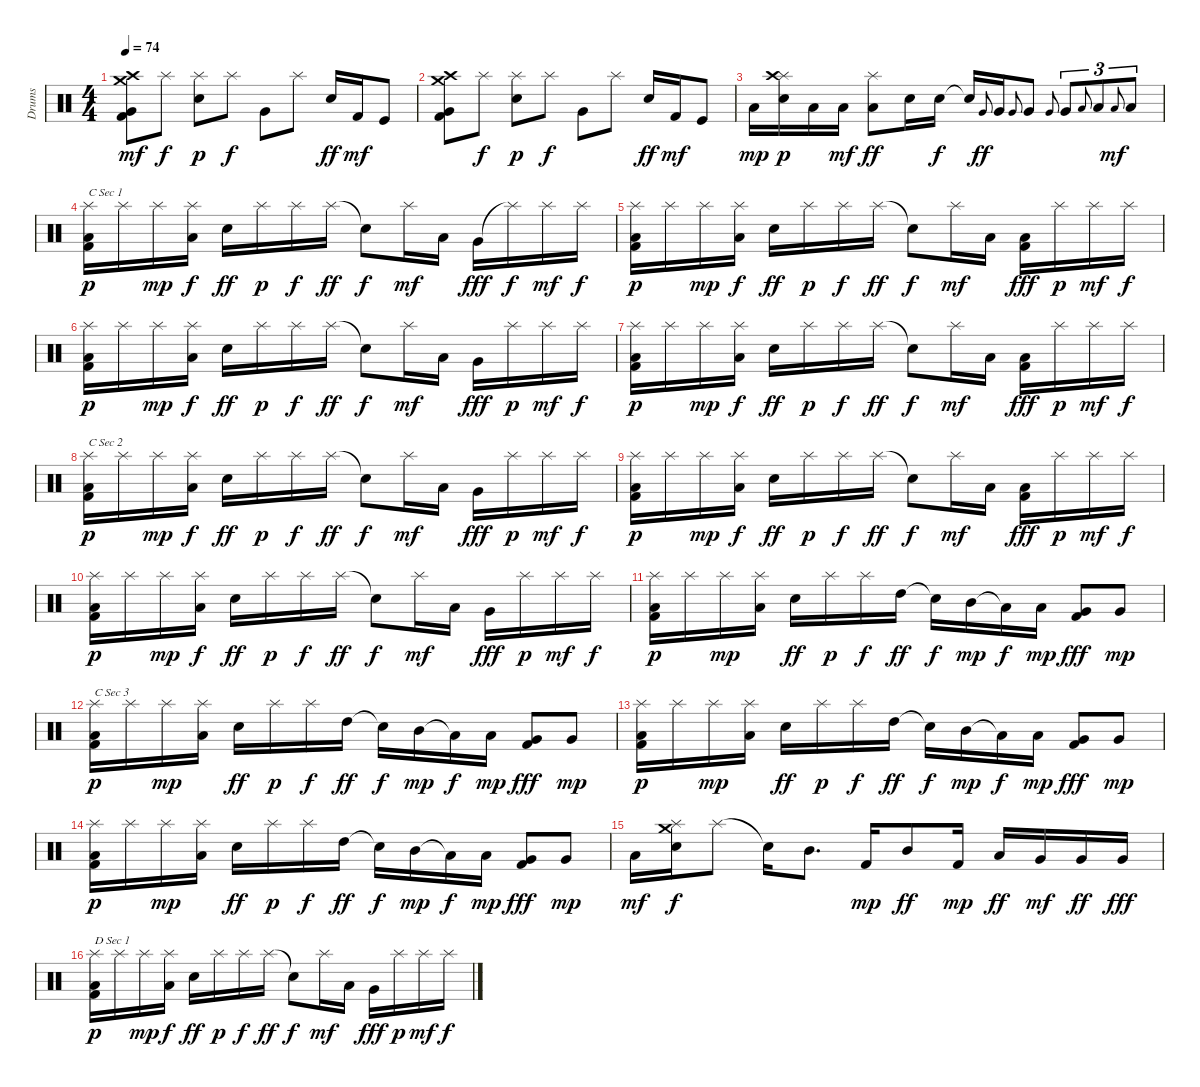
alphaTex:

\track ("Drums" "Drums") {instrument percussion}
\staff {score}
\articulation defaults
\ts (4 4)
\tempo 74
\clef neutral
\ks c
("Very Low Tom (hit)" "Crash medium (hit)" "Kick (hit) 2" "Crash high (hit)").8{dy mf} "Splash (hit)".8{dy f} ("Electric Snare (hit)" "Splash (hit)").8{dy p} "Splash (hit)".8{dy f} "Very Low Tom (hit)".8 "Splash (hit)".8 "Electric Snare (hit)".16{dy ff} "Kick (hit) 2".16{dy mf} "Kick (hit)".8 |
("Very Low Tom (hit)" "Crash medium (hit)" "Kick (hit) 2" "Crash high (hit)").8 "Splash (hit)".8{dy f} ("Electric Snare (hit)" "Splash (hit)").8{dy p} "Splash (hit)".8{dy f} "Very Low Tom (hit)".8 "Splash (hit)".8 "Electric Snare (hit)".16{dy ff} "Kick (hit) 2".16{dy mf} "Kick (hit)".8 |
"Low Tom (hit)".16{dy mp} ("Splash (hit)" "Crash high (hit)" "Electric Snare (hit)").16{dy p} "Low Floor Tom (hit)".16 "Low Floor Tom (hit)".16{dy mf} ("Splash (hit)" "Low Floor Tom (hit)").8{dy ff} "Electric Snare (hit)".16 "Electric Snare (hit)".16{dy f} "Snare (hit)"{t}.16 "Very Low Tom (hit)".8{gr onbeat dy ff} "Very Low Tom (hit)".16 "Very Low Tom (hit)".8{gr onbeat} "Very Low Tom (hit)".8 "Very Low Tom (hit)".8{gr onbeat} "Very Low Tom (hit)".8{tu (3 2)} "Low Floor Tom (hit)".8{gr onbeat} "Low Floor Tom (hit)".8{tu (3 2)} "Low Floor Tom (hit)".8{gr onbeat dy mf} "Low Floor Tom (hit)".8{tu (3 2)} |
("Low Tom (hit)" "Kick (hit) 2" "Splash (hit)").16{txt "C Sec 1" dy p} "Splash (hit)".16 "Splash (hit)".16{dy mp} ("Splash (hit)" "Low Tom (hit)").16{dy f} "Electric Snare (hit)".16{dy ff} "Splash (hit)".16{dy p} "Splash (hit)".16{dy f} "Splash (hit)".16{dy ff} "Snare (hit)"{t}.8{dy f} "Splash (hit)".16{dy mf} "Low Tom (hit)".16 "Very Low Tom (hit)".16{dy fff} "Splash (hit)"{t}.16{dy f} "Splash (hit)".16{dy mf} "Splash (hit)".16{dy f} |
("Low Tom (hit)" "Kick (hit) 2" "Splash (hit)").16{dy p} "Splash (hit)".16 "Splash (hit)".16{dy mp} ("Splash (hit)" "Low Tom (hit)").16{dy f} "Electric Snare (hit)".16{dy ff} "Splash (hit)".16{dy p} "Splash (hit)".16{dy f} "Splash (hit)".16{dy ff} "Snare (hit)"{t}.8{dy f} "Splash (hit)".16{dy mf} "Low Tom (hit)".16 ("Low Floor Tom (hit)" "Kick (hit) 2").16{dy fff} "Splash (hit)".16{dy p} "Splash (hit)".16{dy mf} "Splash (hit)".16{dy f} |
("Low Tom (hit)" "Kick (hit) 2" "Splash (hit)").16{dy p} "Splash (hit)".16 "Splash (hit)".16{dy mp} ("Splash (hit)" "Low Tom (hit)").16{dy f} "Electric Snare (hit)".16{dy ff} "Splash (hit)".16{dy p} "Splash (hit)".16{dy f} "Splash (hit)".16{dy ff} "Snare (hit)"{t}.8{dy f} "Splash (hit)".16{dy mf} "Low Tom (hit)".16 "Very Low Tom (hit)".16{dy fff} "Splash (hit)".16{dy p} "Splash (hit)".16{dy mf} "Splash (hit)".16{dy f} |
("Low Tom (hit)" "Kick (hit) 2" "Splash (hit)").16{dy p} "Splash (hit)".16 "Splash (hit)".16{dy mp} ("Splash (hit)" "Low Tom (hit)").16{dy f} "Electric Snare (hit)".16{dy ff} "Splash (hit)".16{dy p} "Splash (hit)".16{dy f} "Splash (hit)".16{dy ff} "Snare (hit)"{t}.8{dy f} "Splash (hit)".16{dy mf} "Low Tom (hit)".16 ("Low Floor Tom (hit)" "Kick (hit) 2").16{dy fff} "Splash (hit)".16{dy p} "Splash (hit)".16{dy mf} "Splash (hit)".16{dy f} |
("Low Tom (hit)" "Kick (hit) 2" "Splash (hit)").16{txt "C Sec 2" dy p} "Splash (hit)".16 "Splash (hit)".16{dy mp} ("Splash (hit)" "Low Tom (hit)").16{dy f} "Electric Snare (hit)".16{dy ff} "Splash (hit)".16{dy p} "Splash (hit)".16{dy f} "Splash (hit)".16{dy ff} "Snare (hit)"{t}.8{dy f} "Splash (hit)".16{dy mf} "Low Tom (hit)".16 "Very Low Tom (hit)".16{dy fff} "Splash (hit)".16{dy p} "Splash (hit)".16{dy mf} "Splash (hit)".16{dy f} |
("Low Tom (hit)" "Kick (hit) 2" "Splash (hit)").16{dy p} "Splash (hit)".16 "Splash (hit)".16{dy mp} ("Splash (hit)" "Low Tom (hit)").16{dy f} "Electric Snare (hit)".16{dy ff} "Splash (hit)".16{dy p} "Splash (hit)".16{dy f} "Splash (hit)".16{dy ff} "Snare (hit)"{t}.8{dy f} "Splash (hit)".16{dy mf} "Low Tom (hit)".16 ("Low Floor Tom (hit)" "Kick (hit) 2").16{dy fff} "Splash (hit)".16{dy p} "Splash (hit)".16{dy mf} "Splash (hit)".16{dy f} |
("Low Tom (hit)" "Kick (hit) 2" "Splash (hit)").16{dy p} "Splash (hit)".16 "Splash (hit)".16{dy mp} ("Splash (hit)" "Low Tom (hit)").16{dy f} "Electric Snare (hit)".16{txt "" dy ff} "Splash (hit)".16{dy p} "Splash (hit)".16{dy f} "Splash (hit)".16{dy ff} "Snare (hit)"{t}.8{dy f} "Splash (hit)".16{dy mf} "Low Tom (hit)".16 "Very Low Tom (hit)".16{dy fff} "Splash (hit)".16{dy p} "Splash (hit)".16{dy mf} "Splash (hit)".16{dy f} |
("Low Tom (hit)" "Kick (hit) 2" "Splash (hit)").16{dy p} "Splash (hit)".16 "Splash (hit)".16{dy mp} ("Splash (hit)" "Low Tom (hit)").16 "Electric Snare (hit)".16{dy ff} "Splash (hit)".16{dy p} "Splash (hit)".16{dy f} "High Tom (hit)".16{dy ff} "Snare (hit)"{t}.16{dy f} "Mid Tom (hit)".16{dy mp} "Low Tom (hit)"{t}.16{dy f} "Low Tom (hit)".16{dy mp} ("Very Low Tom (hit)" "Kick (hit) 2").8{dy fff} "Very Low Tom (hit)".8{dy mp} |
("Low Tom (hit)" "Kick (hit) 2" "Splash (hit)").16{txt "C Sec 3" dy p} "Splash (hit)".16 "Splash (hit)".16{dy mp} ("Splash (hit)" "Low Tom (hit)").16 "Electric Snare (hit)".16{dy ff} "Splash (hit)".16{dy p} "Splash (hit)".16{dy f} "High Tom (hit)".16{dy ff} "Snare (hit)"{t}.16{dy f} "Mid Tom (hit)".16{dy mp} "Low Tom (hit)"{t}.16{dy f} "Low Tom (hit)".16{dy mp} ("Very Low Tom (hit)" "Kick (hit) 2").8{dy fff} "Very Low Tom (hit)".8{dy mp} |
("Low Tom (hit)" "Kick (hit) 2" "Splash (hit)").16{dy p} "Splash (hit)".16 "Splash (hit)".16{dy mp} ("Splash (hit)" "Low Tom (hit)").16 "Electric Snare (hit)".16{dy ff} "Splash (hit)".16{dy p} "Splash (hit)".16{dy f} "High Tom (hit)".16{dy ff} "Snare (hit)"{t}.16{dy f} "Mid Tom (hit)".16{dy mp} "Low Tom (hit)"{t}.16{dy f} "Low Tom (hit)".16{dy mp} ("Very Low Tom (hit)" "Kick (hit) 2").8{dy fff} "Very Low Tom (hit)".8{dy mp} |
("Low Tom (hit)" "Kick (hit) 2" "Splash (hit)").16{dy p} "Splash (hit)".16 "Splash (hit)".16{dy mp} ("Splash (hit)" "Low Tom (hit)").16 "Electric Snare (hit)".16{dy ff} "Splash (hit)".16{dy p} "Splash (hit)".16{dy f} "High Tom (hit)".16{dy ff} "Snare (hit)"{t}.16{dy f} "Mid Tom (hit)".16{dy mp} "Low Tom (hit)"{t}.16{dy f} "Low Tom (hit)".16{dy mp} ("Very Low Tom (hit)" "Kick (hit) 2").8{dy fff} "Very Low Tom (hit)".8{dy mp} |
"Low Tom (hit)".16{dy mf} ("Splash (hit)" "Crash medium (hit)" "Electric Snare (hit)").16{dy f} "Splash (hit)".8 "Snare (hit)"{t}.16 "Mid Tom (hit)".8{d} "Kick (hit) 2".16{dy mp} "Mid Tom (hit)".8{dy ff} "Kick (hit) 2".16{dy mp} "Low Tom (hit)".16{dy ff} "Very Low Tom (hit)".16{dy mf} "Very Low Tom (hit)".16{dy ff} "Very Low Tom (hit)".16{dy fff} |
("Low Tom (hit)" "Kick (hit) 2" "Splash (hit)").16{txt "D Sec 1" dy p} "Splash (hit)".16 "Splash (hit)".16{dy mp} ("Splash (hit)" "Low Tom (hit)").16{dy f} "Electric Snare (hit)".16{dy ff} "Splash (hit)".16{dy p} "Splash (hit)".16{dy f} "Splash (hit)".16{dy ff} "Snare (hit)"{t}.8{dy f} "Splash (hit)".16{dy mf} "Low Tom (hit)".16 "Very Low Tom (hit)".16{dy fff} "Splash (hit)".16{dy p} "Splash (hit)".16{dy mf} "Splash (hit)".16{dy f}
